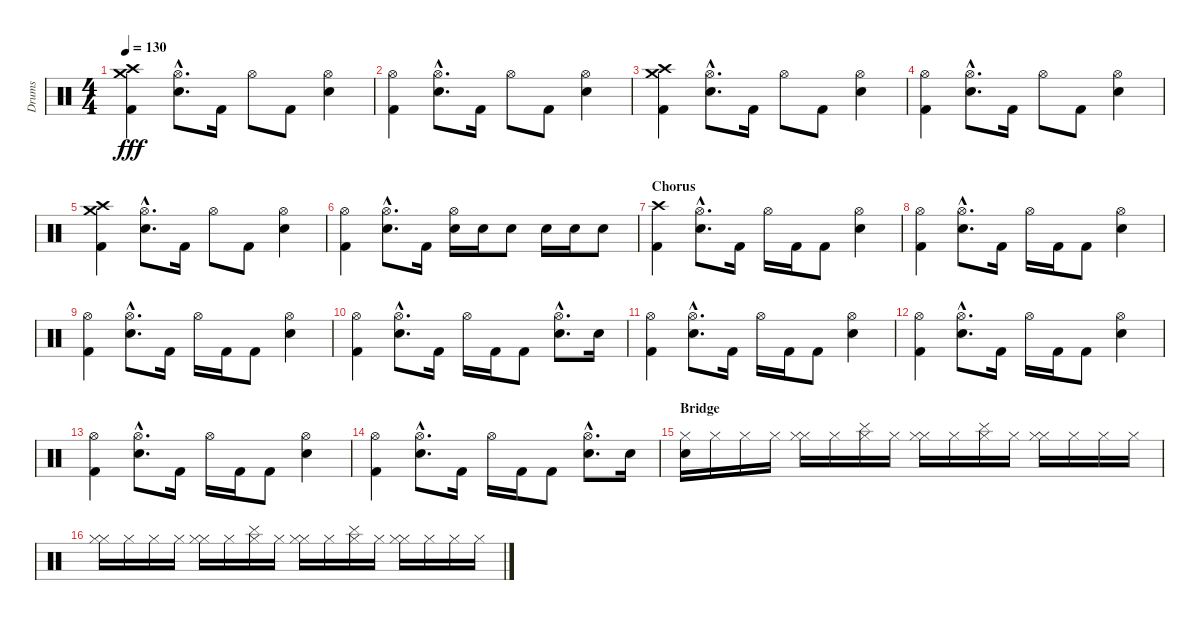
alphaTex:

\track ("Drums" "Drums") {instrument percussion}
\staff {score}
\articulation defaults
\ts (4 4)
\tempo 130
\clef neutral
\ks c
("Crash high (hit)" "Crash medium (hit)" "Kick (hit) 2").4{dy fff} ("Hi-Hat (open)"{hac} "Electric Snare (hit)"{hac}).8{d} "Kick (hit) 2".16 "Hi-Hat (open)".8 "Kick (hit) 2".8 ("Hi-Hat (open)" "Electric Snare (hit)").4 |
("Hi-Hat (open)" "Kick (hit) 2").4 ("Hi-Hat (open)"{hac} "Electric Snare (hit)"{hac}).8{d} "Kick (hit) 2".16 "Hi-Hat (open)".8 "Kick (hit) 2".8 ("Hi-Hat (open)" "Electric Snare (hit)").4 |
("Crash high (hit)" "Crash medium (hit)" "Kick (hit) 2").4 ("Hi-Hat (open)"{hac} "Electric Snare (hit)"{hac}).8{d} "Kick (hit) 2".16 "Hi-Hat (open)".8 "Kick (hit) 2".8 ("Hi-Hat (open)" "Electric Snare (hit)").4 |
("Hi-Hat (open)" "Kick (hit) 2").4 ("Hi-Hat (open)"{hac} "Electric Snare (hit)"{hac}).8{d} "Kick (hit) 2".16 "Hi-Hat (open)".8 "Kick (hit) 2".8 ("Hi-Hat (open)" "Electric Snare (hit)").4 |
("Crash high (hit)" "Crash medium (hit)" "Kick (hit) 2").4 ("Hi-Hat (open)"{hac} "Electric Snare (hit)"{hac}).8{d} "Kick (hit) 2".16 "Hi-Hat (open)".8 "Kick (hit) 2".8 ("Hi-Hat (open)" "Electric Snare (hit)").4 |
("Hi-Hat (open)" "Kick (hit) 2").4 ("Hi-Hat (open)"{hac} "Electric Snare (hit)"{hac}).8{d} "Kick (hit) 2".16 ("Hi-Hat (open)" "Electric Snare (hit)").16 "Electric Snare (hit)".16 "Electric Snare (hit)".8 "Electric Snare (hit)".16 "Electric Snare (hit)".16 "Electric Snare (hit)".8 |
\section ("" "Chorus")
("Crash high (hit)" "Kick (hit) 2").4 ("Hi-Hat (open)"{hac} "Electric Snare (hit)"{hac}).8{d} "Kick (hit) 2".16 "Hi-Hat (open)".16 "Kick (hit) 2".16 "Kick (hit) 2".8 ("Hi-Hat (open)" "Electric Snare (hit)").4 |
("Hi-Hat (open)" "Kick (hit) 2").4 ("Hi-Hat (open)"{hac} "Electric Snare (hit)"{hac}).8{d} "Kick (hit) 2".16 "Hi-Hat (open)".16 "Kick (hit) 2".16 "Kick (hit) 2".8 ("Hi-Hat (open)" "Electric Snare (hit)").4 |
("Hi-Hat (open)" "Kick (hit) 2").4 ("Hi-Hat (open)"{hac} "Electric Snare (hit)"{hac}).8{d} "Kick (hit) 2".16 "Hi-Hat (open)".16 "Kick (hit) 2".16 "Kick (hit) 2".8 ("Hi-Hat (open)" "Electric Snare (hit)").4 |
("Hi-Hat (open)" "Kick (hit) 2").4 ("Hi-Hat (open)"{hac} "Electric Snare (hit)"{hac}).8{d} "Kick (hit) 2".16 "Hi-Hat (open)".16 "Kick (hit) 2".16 "Kick (hit) 2".8 ("Hi-Hat (open)"{hac} "Electric Snare (hit)"{hac}).8{d} "Electric Snare (hit)".16 |
("Hi-Hat (open)" "Kick (hit) 2").4 ("Hi-Hat (open)"{hac} "Electric Snare (hit)"{hac}).8{d} "Kick (hit) 2".16 "Hi-Hat (open)".16 "Kick (hit) 2".16 "Kick (hit) 2".8 ("Hi-Hat (open)" "Electric Snare (hit)").4 |
("Hi-Hat (open)" "Kick (hit) 2").4 ("Hi-Hat (open)"{hac} "Electric Snare (hit)"{hac}).8{d} "Kick (hit) 2".16 "Hi-Hat (open)".16 "Kick (hit) 2".16 "Kick (hit) 2".8 ("Hi-Hat (open)" "Electric Snare (hit)").4 |
("Hi-Hat (open)" "Kick (hit) 2").4 ("Hi-Hat (open)"{hac} "Electric Snare (hit)"{hac}).8{d} "Kick (hit) 2".16 "Hi-Hat (open)".16 "Kick (hit) 2".16 "Kick (hit) 2".8 ("Hi-Hat (open)" "Electric Snare (hit)").4 |
("Hi-Hat (open)" "Kick (hit) 2").4 ("Hi-Hat (open)"{hac} "Electric Snare (hit)"{hac}).8{d} "Kick (hit) 2".16 "Hi-Hat (open)".16 "Kick (hit) 2".16 "Kick (hit) 2".8 ("Hi-Hat (open)"{hac} "Electric Snare (hit)"{hac}).8{d} "Electric Snare (hit)".16 |
\section ("" "Bridge")
("Hi-Hat (closed)" "Electric Snare (hit)").16 "Hi-Hat (closed)".16 "Hi-Hat (closed)".16 "Hi-Hat (closed)".16 ("Hi-Hat (closed)" "Hi-Hat (closed)").16 "Hi-Hat (closed)".16 ("Cymbal (hit)" "Hi-Hat (closed)").16 "Hi-Hat (closed)".16 ("Hi-Hat (closed)" "Hi-Hat (closed)").16 "Hi-Hat (closed)".16 ("Cymbal (hit)" "Hi-Hat (closed)").16 "Hi-Hat (closed)".16 ("Hi-Hat (closed)" "Hi-Hat (closed)").16 "Hi-Hat (closed)".16 "Hi-Hat (closed)".16 "Hi-Hat (closed)".16 |
("Hi-Hat (closed)" "Hi-Hat (closed)").16 "Hi-Hat (closed)".16 "Hi-Hat (closed)".16 "Hi-Hat (closed)".16 ("Hi-Hat (closed)" "Hi-Hat (closed)").16 "Hi-Hat (closed)".16 ("Cymbal (hit)" "Hi-Hat (closed)").16 "Hi-Hat (closed)".16 ("Hi-Hat (closed)" "Hi-Hat (closed)").16 "Hi-Hat (closed)".16 ("Cymbal (hit)" "Hi-Hat (closed)").16 "Hi-Hat (closed)".16 ("Hi-Hat (closed)" "Hi-Hat (closed)").16 "Hi-Hat (closed)".16 "Hi-Hat (closed)".16 "Hi-Hat (closed)".16
